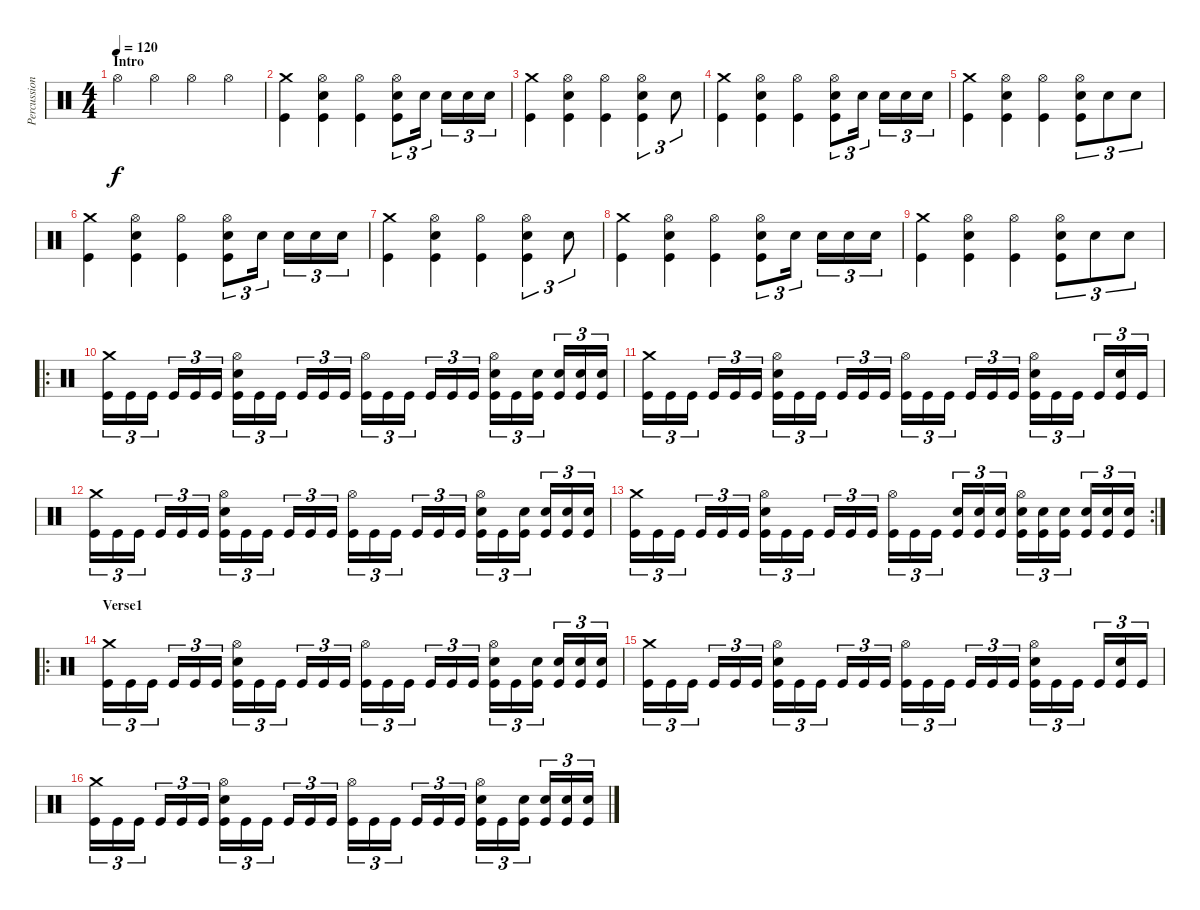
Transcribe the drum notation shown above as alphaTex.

\track ("Percussion" "Percussion") {instrument percussion}
\staff {score}
\articulation defaults
\ts (4 4)
\section ("" "Intro")
\tempo 120
\clef neutral
\ks c "Hi-Hat (open)".4{dy f} "Hi-Hat (open)".4 "Hi-Hat (open)".4 "Hi-Hat (open)".4
|
("Crash medium (hit)" "Kick (hit)").4 ("Snare (hit) 2" "Hi-Hat (open)" "Kick (hit)").4 ("Hi-Hat (open)" "Kick (hit)").4 ("Snare (hit) 2" "Hi-Hat (open)" "Kick (hit)").8{tu (3 2)} "Snare (hit) 2".16{tu (3 2)} "Snare (hit) 2".16{tu (3 2)} "Snare (hit) 2".16{tu (3 2)} "Snare (hit) 2".16{tu (3 2)} |
("Crash medium (hit)" "Kick (hit)").4 ("Snare (hit) 2" "Hi-Hat (open)" "Kick (hit)").4 ("Hi-Hat (open)" "Kick (hit)").4 ("Snare (hit) 2" "Hi-Hat (open)" "Kick (hit)").4{tu (3 2)} "Snare (hit) 2".8{tu (3 2)} |
("Crash medium (hit)" "Kick (hit)").4 ("Snare (hit) 2" "Hi-Hat (open)" "Kick (hit)").4 ("Hi-Hat (open)" "Kick (hit)").4 ("Snare (hit) 2" "Hi-Hat (open)" "Kick (hit)").8{tu (3 2)} "Snare (hit) 2".16{tu (3 2)} "Snare (hit) 2".16{tu (3 2)} "Snare (hit) 2".16{tu (3 2)} "Snare (hit) 2".16{tu (3 2)} |
("Crash medium (hit)" "Kick (hit)").4 ("Snare (hit) 2" "Hi-Hat (open)" "Kick (hit)").4 ("Hi-Hat (open)" "Kick (hit)").4 ("Snare (hit) 2" "Hi-Hat (open)" "Kick (hit)").8{tu (3 2)} "Snare (hit) 2".8{tu (3 2)} "Snare (hit) 2".8{tu (3 2)} |
("Crash medium (hit)" "Kick (hit)").4 ("Snare (hit) 2" "Hi-Hat (open)" "Kick (hit)").4 ("Hi-Hat (open)" "Kick (hit)").4 ("Snare (hit) 2" "Hi-Hat (open)" "Kick (hit)").8{tu (3 2)} "Snare (hit) 2".16{tu (3 2)} "Snare (hit) 2".16{tu (3 2)} "Snare (hit) 2".16{tu (3 2)} "Snare (hit) 2".16{tu (3 2)} |
("Crash medium (hit)" "Kick (hit)").4 ("Snare (hit) 2" "Hi-Hat (open)" "Kick (hit)").4 ("Hi-Hat (open)" "Kick (hit)").4 ("Snare (hit) 2" "Hi-Hat (open)" "Kick (hit)").4{tu (3 2)} "Snare (hit) 2".8{tu (3 2)} |
("Crash medium (hit)" "Kick (hit)").4 ("Snare (hit) 2" "Hi-Hat (open)" "Kick (hit)").4 ("Hi-Hat (open)" "Kick (hit)").4 ("Snare (hit) 2" "Hi-Hat (open)" "Kick (hit)").8{tu (3 2)} "Snare (hit) 2".16{tu (3 2)} "Snare (hit) 2".16{tu (3 2)} "Snare (hit) 2".16{tu (3 2)} "Snare (hit) 2".16{tu (3 2)} |
("Crash medium (hit)" "Kick (hit)").4 ("Snare (hit) 2" "Hi-Hat (open)" "Kick (hit)").4 ("Hi-Hat (open)" "Kick (hit)").4 ("Snare (hit) 2" "Hi-Hat (open)" "Kick (hit)").8{tu (3 2)} "Snare (hit) 2".8{tu (3 2)} "Snare (hit) 2".8{tu (3 2)} |
\ro
("Crash medium (hit)" "Kick (hit)").16{tu (3 2)} "Kick (hit)".16{tu (3 2)} "Kick (hit)".16{tu (3 2)} "Kick (hit)".16{tu (3 2)} "Kick (hit)".16{tu (3 2)} "Kick (hit)".16{tu (3 2)} ("Snare (hit) 2" "Hi-Hat (open)" "Kick (hit)").16{tu (3 2)} "Kick (hit)".16{tu (3 2)} "Kick (hit)".16{tu (3 2)} "Kick (hit)".16{tu (3 2)} "Kick (hit)".16{tu (3 2)} "Kick (hit)".16{tu (3 2)} ("Hi-Hat (open)" "Kick (hit)").16{tu (3 2)} "Kick (hit)".16{tu (3 2)} "Kick (hit)".16{tu (3 2)} "Kick (hit)".16{tu (3 2)} "Kick (hit)".16{tu (3 2)} "Kick (hit)".16{tu (3 2)} ("Snare (hit) 2" "Hi-Hat (open)" "Kick (hit)").16{tu (3 2)} "Kick (hit)".16{tu (3 2)} ("Snare (hit) 2" "Kick (hit)").16{tu (3 2)} ("Snare (hit) 2" "Kick (hit)").16{tu (3 2)} ("Snare (hit) 2" "Kick (hit)").16{tu (3 2)} ("Snare (hit) 2" "Kick (hit)").16{tu (3 2)} |
("Crash medium (hit)" "Kick (hit)").16{tu (3 2)} "Kick (hit)".16{tu (3 2)} "Kick (hit)".16{tu (3 2)} "Kick (hit)".16{tu (3 2)} "Kick (hit)".16{tu (3 2)} "Kick (hit)".16{tu (3 2)} ("Snare (hit) 2" "Hi-Hat (open)" "Kick (hit)").16{tu (3 2)} "Kick (hit)".16{tu (3 2)} "Kick (hit)".16{tu (3 2)} "Kick (hit)".16{tu (3 2)} "Kick (hit)".16{tu (3 2)} "Kick (hit)".16{tu (3 2)} ("Hi-Hat (open)" "Kick (hit)").16{tu (3 2)} "Kick (hit)".16{tu (3 2)} "Kick (hit)".16{tu (3 2)} "Kick (hit)".16{tu (3 2)} "Kick (hit)".16{tu (3 2)} "Kick (hit)".16{tu (3 2)} ("Snare (hit) 2" "Hi-Hat (open)" "Kick (hit)").16{tu (3 2)} "Kick (hit)".16{tu (3 2)} "Kick (hit)".16{tu (3 2)} "Kick (hit)".16{tu (3 2)} ("Snare (hit) 2" "Kick (hit)").16{tu (3 2)} "Kick (hit)".16{tu (3 2)} |
("Crash medium (hit)" "Kick (hit)").16{tu (3 2)} "Kick (hit)".16{tu (3 2)} "Kick (hit)".16{tu (3 2)} "Kick (hit)".16{tu (3 2)} "Kick (hit)".16{tu (3 2)} "Kick (hit)".16{tu (3 2)} ("Snare (hit) 2" "Hi-Hat (open)" "Kick (hit)").16{tu (3 2)} "Kick (hit)".16{tu (3 2)} "Kick (hit)".16{tu (3 2)} "Kick (hit)".16{tu (3 2)} "Kick (hit)".16{tu (3 2)} "Kick (hit)".16{tu (3 2)} ("Hi-Hat (open)" "Kick (hit)").16{tu (3 2)} "Kick (hit)".16{tu (3 2)} "Kick (hit)".16{tu (3 2)} "Kick (hit)".16{tu (3 2)} "Kick (hit)".16{tu (3 2)} "Kick (hit)".16{tu (3 2)} ("Snare (hit) 2" "Hi-Hat (open)" "Kick (hit)").16{tu (3 2)} "Kick (hit)".16{tu (3 2)} ("Snare (hit) 2" "Kick (hit)").16{tu (3 2)} ("Snare (hit) 2" "Kick (hit)").16{tu (3 2)} ("Snare (hit) 2" "Kick (hit)").16{tu (3 2)} ("Snare (hit) 2" "Kick (hit)").16{tu (3 2)} |
\rc 2
("Crash medium (hit)" "Kick (hit)").16{tu (3 2)} "Kick (hit)".16{tu (3 2)} "Kick (hit)".16{tu (3 2)} "Kick (hit)".16{tu (3 2)} "Kick (hit)".16{tu (3 2)} "Kick (hit)".16{tu (3 2)} ("Snare (hit) 2" "Hi-Hat (open)" "Kick (hit)").16{tu (3 2)} "Kick (hit)".16{tu (3 2)} "Kick (hit)".16{tu (3 2)} "Kick (hit)".16{tu (3 2)} "Kick (hit)".16{tu (3 2)} "Kick (hit)".16{tu (3 2)} ("Hi-Hat (open)" "Kick (hit)").16{tu (3 2)} "Kick (hit)".16{tu (3 2)} "Kick (hit)".16{tu (3 2)} ("Snare (hit) 2" "Kick (hit)").16{tu (3 2)} ("Snare (hit) 2" "Kick (hit)").16{tu (3 2)} ("Snare (hit) 2" "Kick (hit)").16{tu (3 2)} ("Snare (hit) 2" "Hi-Hat (open)" "Kick (hit)").16{tu (3 2)} ("Snare (hit) 2" "Kick (hit)").16{tu (3 2)} ("Snare (hit) 2" "Kick (hit)").16{tu (3 2)} ("Snare (hit) 2" "Kick (hit)").16{tu (3 2)} ("Snare (hit) 2" "Kick (hit)").16{tu (3 2)} ("Snare (hit) 2" "Kick (hit)").16{tu (3 2)} |
\ro
\section ("" "Verse1")
("Crash medium (hit)" "Kick (hit)").16{tu (3 2)} "Kick (hit)".16{tu (3 2)} "Kick (hit)".16{tu (3 2)} "Kick (hit)".16{tu (3 2)} "Kick (hit)".16{tu (3 2)} "Kick (hit)".16{tu (3 2)} ("Snare (hit) 2" "Hi-Hat (open)" "Kick (hit)").16{tu (3 2)} "Kick (hit)".16{tu (3 2)} "Kick (hit)".16{tu (3 2)} "Kick (hit)".16{tu (3 2)} "Kick (hit)".16{tu (3 2)} "Kick (hit)".16{tu (3 2)} ("Hi-Hat (open)" "Kick (hit)").16{tu (3 2)} "Kick (hit)".16{tu (3 2)} "Kick (hit)".16{tu (3 2)} "Kick (hit)".16{tu (3 2)} "Kick (hit)".16{tu (3 2)} "Kick (hit)".16{tu (3 2)} ("Snare (hit) 2" "Hi-Hat (open)" "Kick (hit)").16{tu (3 2)} "Kick (hit)".16{tu (3 2)} ("Snare (hit) 2" "Kick (hit)").16{tu (3 2)} ("Snare (hit) 2" "Kick (hit)").16{tu (3 2)} ("Snare (hit) 2" "Kick (hit)").16{tu (3 2)} ("Snare (hit) 2" "Kick (hit)").16{tu (3 2)} |
("Crash medium (hit)" "Kick (hit)").16{tu (3 2)} "Kick (hit)".16{tu (3 2)} "Kick (hit)".16{tu (3 2)} "Kick (hit)".16{tu (3 2)} "Kick (hit)".16{tu (3 2)} "Kick (hit)".16{tu (3 2)} ("Snare (hit) 2" "Hi-Hat (open)" "Kick (hit)").16{tu (3 2)} "Kick (hit)".16{tu (3 2)} "Kick (hit)".16{tu (3 2)} "Kick (hit)".16{tu (3 2)} "Kick (hit)".16{tu (3 2)} "Kick (hit)".16{tu (3 2)} ("Hi-Hat (open)" "Kick (hit)").16{tu (3 2)} "Kick (hit)".16{tu (3 2)} "Kick (hit)".16{tu (3 2)} "Kick (hit)".16{tu (3 2)} "Kick (hit)".16{tu (3 2)} "Kick (hit)".16{tu (3 2)} ("Snare (hit) 2" "Hi-Hat (open)" "Kick (hit)").16{tu (3 2)} "Kick (hit)".16{tu (3 2)} "Kick (hit)".16{tu (3 2)} "Kick (hit)".16{tu (3 2)} ("Snare (hit) 2" "Kick (hit)").16{tu (3 2)} "Kick (hit)".16{tu (3 2)} |
("Crash medium (hit)" "Kick (hit)").16{tu (3 2)} "Kick (hit)".16{tu (3 2)} "Kick (hit)".16{tu (3 2)} "Kick (hit)".16{tu (3 2)} "Kick (hit)".16{tu (3 2)} "Kick (hit)".16{tu (3 2)} ("Snare (hit) 2" "Hi-Hat (open)" "Kick (hit)").16{tu (3 2)} "Kick (hit)".16{tu (3 2)} "Kick (hit)".16{tu (3 2)} "Kick (hit)".16{tu (3 2)} "Kick (hit)".16{tu (3 2)} "Kick (hit)".16{tu (3 2)} ("Hi-Hat (open)" "Kick (hit)").16{tu (3 2)} "Kick (hit)".16{tu (3 2)} "Kick (hit)".16{tu (3 2)} "Kick (hit)".16{tu (3 2)} "Kick (hit)".16{tu (3 2)} "Kick (hit)".16{tu (3 2)} ("Snare (hit) 2" "Hi-Hat (open)" "Kick (hit)").16{tu (3 2)} "Kick (hit)".16{tu (3 2)} ("Snare (hit) 2" "Kick (hit)").16{tu (3 2)} ("Snare (hit) 2" "Kick (hit)").16{tu (3 2)} ("Snare (hit) 2" "Kick (hit)").16{tu (3 2)} ("Snare (hit) 2" "Kick (hit)").16{tu (3 2)}
